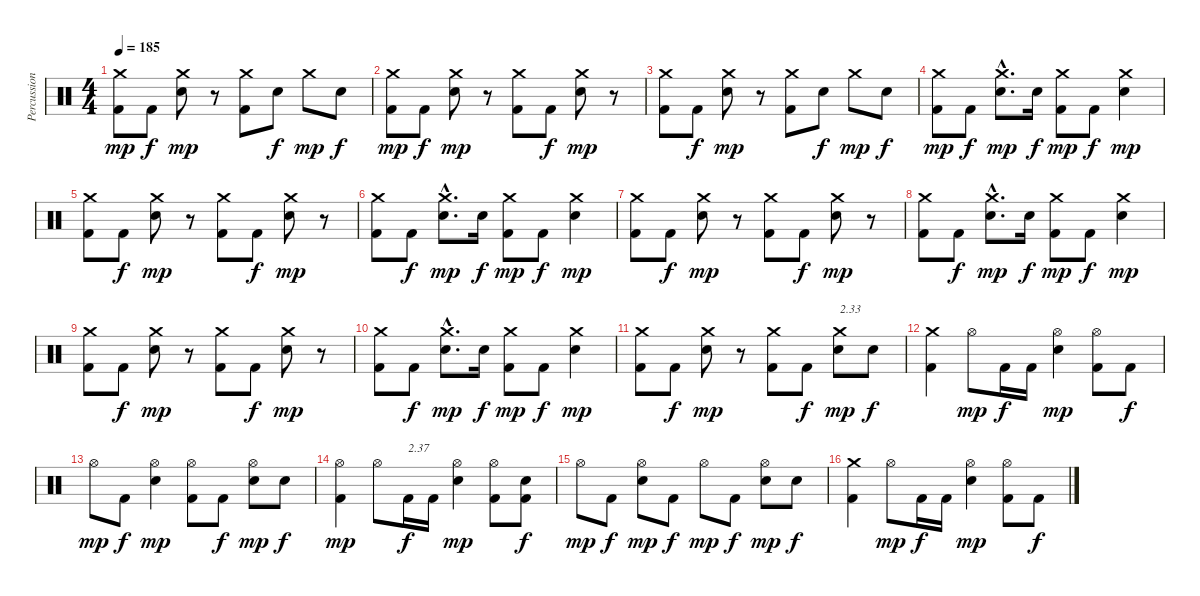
\track ("Percussions" "Percussion") {instrument percussion}
\staff {score}
\articulation defaults
\ts (4 4)
\tempo 185
\clef neutral
\ks c
("Kick (hit) 2" "Crash medium (hit)").8{dy mp} "Kick (hit) 2".8{dy f} ("Electric Snare (hit)" "Crash medium (hit)").8{dy mp} r.8 ("Kick (hit) 2" "Crash medium (hit)").8 "Electric Snare (hit)".8{dy f} "Crash medium (hit)".8{dy mp} "Electric Snare (hit)".8{dy f} |
("Kick (hit) 2" "Crash medium (hit)").8{dy mp} "Kick (hit) 2".8{dy f} ("Electric Snare (hit)" "Crash medium (hit)").8{dy mp} r.8 ("Kick (hit) 2" "Crash medium (hit)").8 "Kick (hit) 2".8{dy f} ("Electric Snare (hit)" "Crash medium (hit)").8{dy mp} r.8 |
("Kick (hit) 2" "Crash medium (hit)").8 "Kick (hit) 2".8{dy f} ("Electric Snare (hit)" "Crash medium (hit)").8{dy mp} r.8 ("Kick (hit) 2" "Crash medium (hit)").8 "Electric Snare (hit)".8{dy f} "Crash medium (hit)".8{dy mp} "Electric Snare (hit)".8{dy f} |
("Kick (hit) 2" "Crash medium (hit)").8{dy mp} "Kick (hit) 2".8{dy f} ("Electric Snare (hit)"{hac} "Crash medium (hit)"{hac}).8{d dy mp} "Electric Snare (hit)".16{dy f} ("Kick (hit) 2" "Crash medium (hit)").8{dy mp} "Kick (hit) 2".8{dy f} ("Electric Snare (hit)" "Crash medium (hit)").4{dy mp} |
("Kick (hit) 2" "Crash medium (hit)").8 "Kick (hit) 2".8{dy f} ("Electric Snare (hit)" "Crash medium (hit)").8{dy mp} r.8 ("Kick (hit) 2" "Crash medium (hit)").8 "Kick (hit) 2".8{dy f} ("Electric Snare (hit)" "Crash medium (hit)").8{dy mp} r.8 |
("Kick (hit) 2" "Crash medium (hit)").8 "Kick (hit) 2".8{dy f} ("Electric Snare (hit)"{hac} "Crash medium (hit)"{hac}).8{d dy mp} "Electric Snare (hit)".16{dy f} ("Kick (hit) 2" "Crash medium (hit)").8{dy mp} "Kick (hit) 2".8{dy f} ("Electric Snare (hit)" "Crash medium (hit)").4{dy mp} |
("Kick (hit) 2" "Crash medium (hit)").8 "Kick (hit) 2".8{dy f} ("Electric Snare (hit)" "Crash medium (hit)").8{dy mp} r.8 ("Kick (hit) 2" "Crash medium (hit)").8 "Kick (hit) 2".8{dy f} ("Electric Snare (hit)" "Crash medium (hit)").8{dy mp} r.8 |
("Kick (hit) 2" "Crash medium (hit)").8 "Kick (hit) 2".8{dy f} ("Electric Snare (hit)"{hac} "Crash medium (hit)"{hac}).8{d dy mp} "Electric Snare (hit)".16{dy f} ("Kick (hit) 2" "Crash medium (hit)").8{dy mp} "Kick (hit) 2".8{dy f} ("Electric Snare (hit)" "Crash medium (hit)").4{dy mp} |
("Kick (hit) 2" "Crash medium (hit)").8 "Kick (hit) 2".8{dy f} ("Electric Snare (hit)" "Crash medium (hit)").8{dy mp} r.8 ("Kick (hit) 2" "Crash medium (hit)").8 "Kick (hit) 2".8{dy f} ("Electric Snare (hit)" "Crash medium (hit)").8{dy mp} r.8 |
("Kick (hit) 2" "Crash medium (hit)").8 "Kick (hit) 2".8{dy f} ("Electric Snare (hit)"{hac} "Crash medium (hit)"{hac}).8{d dy mp} "Electric Snare (hit)".16{dy f} ("Kick (hit) 2" "Crash medium (hit)").8{dy mp} "Kick (hit) 2".8{dy f} ("Electric Snare (hit)" "Crash medium (hit)").4{dy mp} |
("Kick (hit) 2" "Crash medium (hit)").8 "Kick (hit) 2".8{dy f} ("Electric Snare (hit)" "Crash medium (hit)").8{dy mp} r.8 ("Kick (hit) 2" "Crash medium (hit)").8 "Kick (hit) 2".8{dy f} ("Electric Snare (hit)" "Crash medium (hit)").8{txt "2.33" dy mp} "Electric Snare (hit)".8{dy f} |
("Kick (hit) 2" "Crash medium (hit)").4 "Hi-Hat (open)".8{dy mp} "Kick (hit) 2".16{dy f} "Kick (hit) 2".16 ("Electric Snare (hit)" "Hi-Hat (open)").4{dy mp} ("Kick (hit) 2" "Hi-Hat (open)").8 "Kick (hit) 2".8{dy f} |
"Hi-Hat (open)".8{dy mp} "Kick (hit) 2".8{dy f} ("Electric Snare (hit)" "Hi-Hat (open)").4{dy mp} ("Kick (hit) 2" "Hi-Hat (open)").8 "Kick (hit) 2".8{dy f} ("Electric Snare (hit)" "Hi-Hat (open)").8{dy mp} "Electric Snare (hit)".8{dy f} |
("Kick (hit) 2" "Hi-Hat (open)").4{dy mp} "Hi-Hat (open)".8 "Kick (hit) 2".16{txt "2.37" dy f} "Kick (hit) 2".16 ("Electric Snare (hit)" "Hi-Hat (open)").4{dy mp} ("Kick (hit) 2" "Hi-Hat (open)").8 ("Kick (hit) 2" "Electric Snare (hit)").8{dy f} |
"Hi-Hat (open)".8{dy mp} "Kick (hit) 2".8{dy f} ("Electric Snare (hit)" "Hi-Hat (open)").8{dy mp} "Kick (hit) 2".8{dy f} "Hi-Hat (open)".8{dy mp} "Kick (hit) 2".8{dy f} ("Electric Snare (hit)" "Hi-Hat (open)").8{dy mp} "Electric Snare (hit)".8{dy f} |
("Kick (hit) 2" "Crash medium (hit)").4 "Hi-Hat (open)".8{dy mp} "Kick (hit) 2".16{dy f} "Kick (hit) 2".16 ("Electric Snare (hit)" "Hi-Hat (open)").4{dy mp} ("Kick (hit) 2" "Hi-Hat (open)").8 "Kick (hit) 2".8{dy f}
